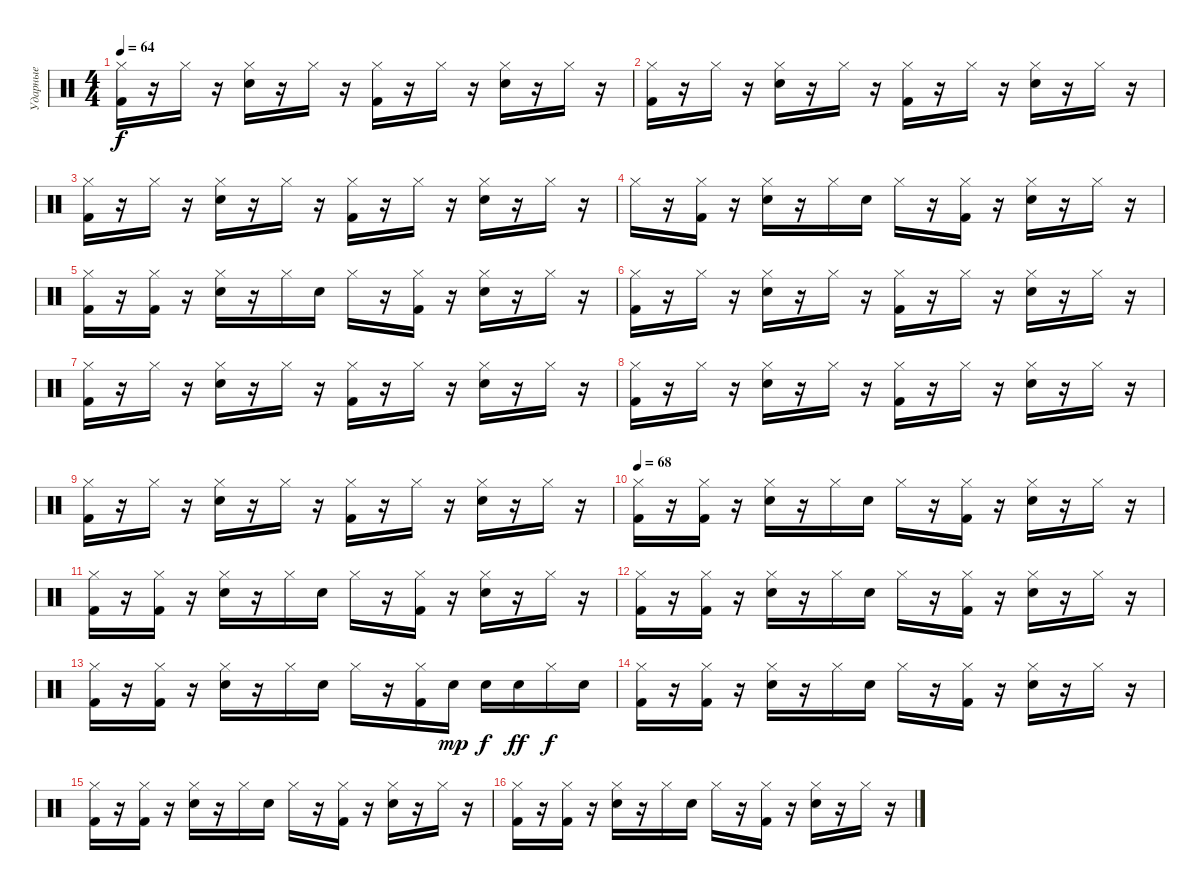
\track ("Ударные" "Ударные") {instrument percussion}
\staff {score}
\articulation defaults
\ts (4 4)
\tempo 64
\clef neutral
\ks c
("Hi-Hat (closed)" "Kick (hit) 2").16{dy f} r.16 "Hi-Hat (closed)".16 r.16 ("Hi-Hat (closed)" "Electric Snare (hit)").16 r.16 "Hi-Hat (closed)".16 r.16 ("Hi-Hat (closed)" "Kick (hit) 2").16 r.16 "Hi-Hat (closed)".16 r.16 ("Hi-Hat (closed)" "Electric Snare (hit)").16 r.16 "Hi-Hat (closed)".16 r.16 |
("Hi-Hat (closed)" "Kick (hit) 2").16 r.16 "Hi-Hat (closed)".16 r.16 ("Hi-Hat (closed)" "Electric Snare (hit)").16 r.16 "Hi-Hat (closed)".16 r.16 ("Hi-Hat (closed)" "Kick (hit) 2").16 r.16 "Hi-Hat (closed)".16 r.16 ("Hi-Hat (closed)" "Electric Snare (hit)").16 r.16 "Hi-Hat (closed)".16 r.16 |
("Hi-Hat (closed)" "Kick (hit) 2").16 r.16 "Hi-Hat (closed)".16 r.16 ("Hi-Hat (closed)" "Electric Snare (hit)").16 r.16 "Hi-Hat (closed)".16 r.16 ("Hi-Hat (closed)" "Kick (hit) 2").16 r.16 "Hi-Hat (closed)".16 r.16 ("Hi-Hat (closed)" "Electric Snare (hit)").16 r.16 "Hi-Hat (closed)".16 r.16 |
"Hi-Hat (closed)".16 r.16 ("Hi-Hat (closed)" "Kick (hit) 2").16 r.16 ("Hi-Hat (closed)" "Electric Snare (hit)").16 r.16 "Hi-Hat (closed)".16 "Electric Snare (hit)".16 "Hi-Hat (closed)".16 r.16 ("Hi-Hat (closed)" "Kick (hit) 2").16 r.16 ("Hi-Hat (closed)" "Electric Snare (hit)").16 r.16 "Hi-Hat (closed)".16 r.16 |
("Hi-Hat (closed)" "Kick (hit) 2").16 r.16 ("Hi-Hat (closed)" "Kick (hit) 2").16 r.16 ("Hi-Hat (closed)" "Electric Snare (hit)").16 r.16 "Hi-Hat (closed)".16 "Electric Snare (hit)".16 "Hi-Hat (closed)".16 r.16 ("Hi-Hat (closed)" "Kick (hit) 2").16 r.16 ("Hi-Hat (closed)" "Electric Snare (hit)").16 r.16 "Hi-Hat (closed)".16 r.16 |
("Hi-Hat (closed)" "Kick (hit) 2").16 r.16 "Hi-Hat (closed)".16 r.16 ("Hi-Hat (closed)" "Electric Snare (hit)").16 r.16 "Hi-Hat (closed)".16 r.16 ("Hi-Hat (closed)" "Kick (hit) 2").16 r.16 "Hi-Hat (closed)".16 r.16 ("Hi-Hat (closed)" "Electric Snare (hit)").16 r.16 "Hi-Hat (closed)".16 r.16 |
("Hi-Hat (closed)" "Kick (hit) 2").16 r.16 "Hi-Hat (closed)".16 r.16 ("Hi-Hat (closed)" "Electric Snare (hit)").16 r.16 "Hi-Hat (closed)".16 r.16 ("Hi-Hat (closed)" "Kick (hit) 2").16 r.16 "Hi-Hat (closed)".16 r.16 ("Hi-Hat (closed)" "Electric Snare (hit)").16 r.16 "Hi-Hat (closed)".16 r.16 |
("Hi-Hat (closed)" "Kick (hit) 2").16 r.16 "Hi-Hat (closed)".16 r.16 ("Hi-Hat (closed)" "Electric Snare (hit)").16 r.16 "Hi-Hat (closed)".16 r.16 ("Hi-Hat (closed)" "Kick (hit) 2").16 r.16 "Hi-Hat (closed)".16 r.16 ("Hi-Hat (closed)" "Electric Snare (hit)").16 r.16 "Hi-Hat (closed)".16 r.16 |
("Hi-Hat (closed)" "Kick (hit) 2").16 r.16 "Hi-Hat (closed)".16 r.16 ("Hi-Hat (closed)" "Electric Snare (hit)").16 r.16 "Hi-Hat (closed)".16 r.16 ("Hi-Hat (closed)" "Kick (hit) 2").16 r.16 "Hi-Hat (closed)".16 r.16 ("Hi-Hat (closed)" "Electric Snare (hit)").16 r.16 "Hi-Hat (closed)".16 r.16 |
\section ("" "")
\tempo 68
("Hi-Hat (closed)" "Kick (hit) 2").16 r.16 ("Hi-Hat (closed)" "Kick (hit) 2").16 r.16 ("Hi-Hat (closed)" "Electric Snare (hit)").16 r.16 "Hi-Hat (closed)".16 "Electric Snare (hit)".16 "Hi-Hat (closed)".16 r.16 ("Hi-Hat (closed)" "Kick (hit) 2").16 r.16 ("Hi-Hat (closed)" "Electric Snare (hit)").16 r.16 "Hi-Hat (closed)".16 r.16 |
("Hi-Hat (closed)" "Kick (hit) 2").16 r.16 ("Hi-Hat (closed)" "Kick (hit) 2").16 r.16 ("Hi-Hat (closed)" "Electric Snare (hit)").16 r.16 "Hi-Hat (closed)".16 "Electric Snare (hit)".16 "Hi-Hat (closed)".16 r.16 ("Hi-Hat (closed)" "Kick (hit) 2").16 r.16 ("Hi-Hat (closed)" "Electric Snare (hit)").16 r.16 "Hi-Hat (closed)".16 r.16 |
("Hi-Hat (closed)" "Kick (hit) 2").16 r.16 ("Hi-Hat (closed)" "Kick (hit) 2").16 r.16 ("Hi-Hat (closed)" "Electric Snare (hit)").16 r.16 "Hi-Hat (closed)".16 "Electric Snare (hit)".16 "Hi-Hat (closed)".16 r.16 ("Hi-Hat (closed)" "Kick (hit) 2").16 r.16 ("Hi-Hat (closed)" "Electric Snare (hit)").16 r.16 "Hi-Hat (closed)".16 r.16 |
("Hi-Hat (closed)" "Kick (hit) 2").16 r.16 ("Hi-Hat (closed)" "Kick (hit) 2").16 r.16 ("Hi-Hat (closed)" "Electric Snare (hit)").16 r.16 "Hi-Hat (closed)".16 "Electric Snare (hit)".16 "Hi-Hat (closed)".16 r.16 ("Hi-Hat (closed)" "Kick (hit) 2").16 "Electric Snare (hit)".16{dy mp} "Electric Snare (hit)".16{dy f} "Electric Snare (hit)".16{dy ff} "Hi-Hat (closed)".16{dy f} "Electric Snare (hit)".16 |
("Hi-Hat (closed)" "Kick (hit) 2").16 r.16 ("Hi-Hat (closed)" "Kick (hit) 2").16 r.16 ("Hi-Hat (closed)" "Electric Snare (hit)").16 r.16 "Hi-Hat (closed)".16 "Electric Snare (hit)".16 "Hi-Hat (closed)".16 r.16 ("Hi-Hat (closed)" "Kick (hit) 2").16 r.16 ("Hi-Hat (closed)" "Electric Snare (hit)").16 r.16 "Hi-Hat (closed)".16 r.16 |
("Hi-Hat (closed)" "Kick (hit) 2").16 r.16 ("Hi-Hat (closed)" "Kick (hit) 2").16 r.16 ("Hi-Hat (closed)" "Electric Snare (hit)").16 r.16 "Hi-Hat (closed)".16 "Electric Snare (hit)".16 "Hi-Hat (closed)".16 r.16 ("Hi-Hat (closed)" "Kick (hit) 2").16 r.16 ("Hi-Hat (closed)" "Electric Snare (hit)").16 r.16 "Hi-Hat (closed)".16 r.16 |
("Hi-Hat (closed)" "Kick (hit) 2").16 r.16 ("Hi-Hat (closed)" "Kick (hit) 2").16 r.16 ("Hi-Hat (closed)" "Electric Snare (hit)").16 r.16 "Hi-Hat (closed)".16 "Electric Snare (hit)".16 "Hi-Hat (closed)".16 r.16 ("Hi-Hat (closed)" "Kick (hit) 2").16 r.16 ("Hi-Hat (closed)" "Electric Snare (hit)").16 r.16 "Hi-Hat (closed)".16 r.16
